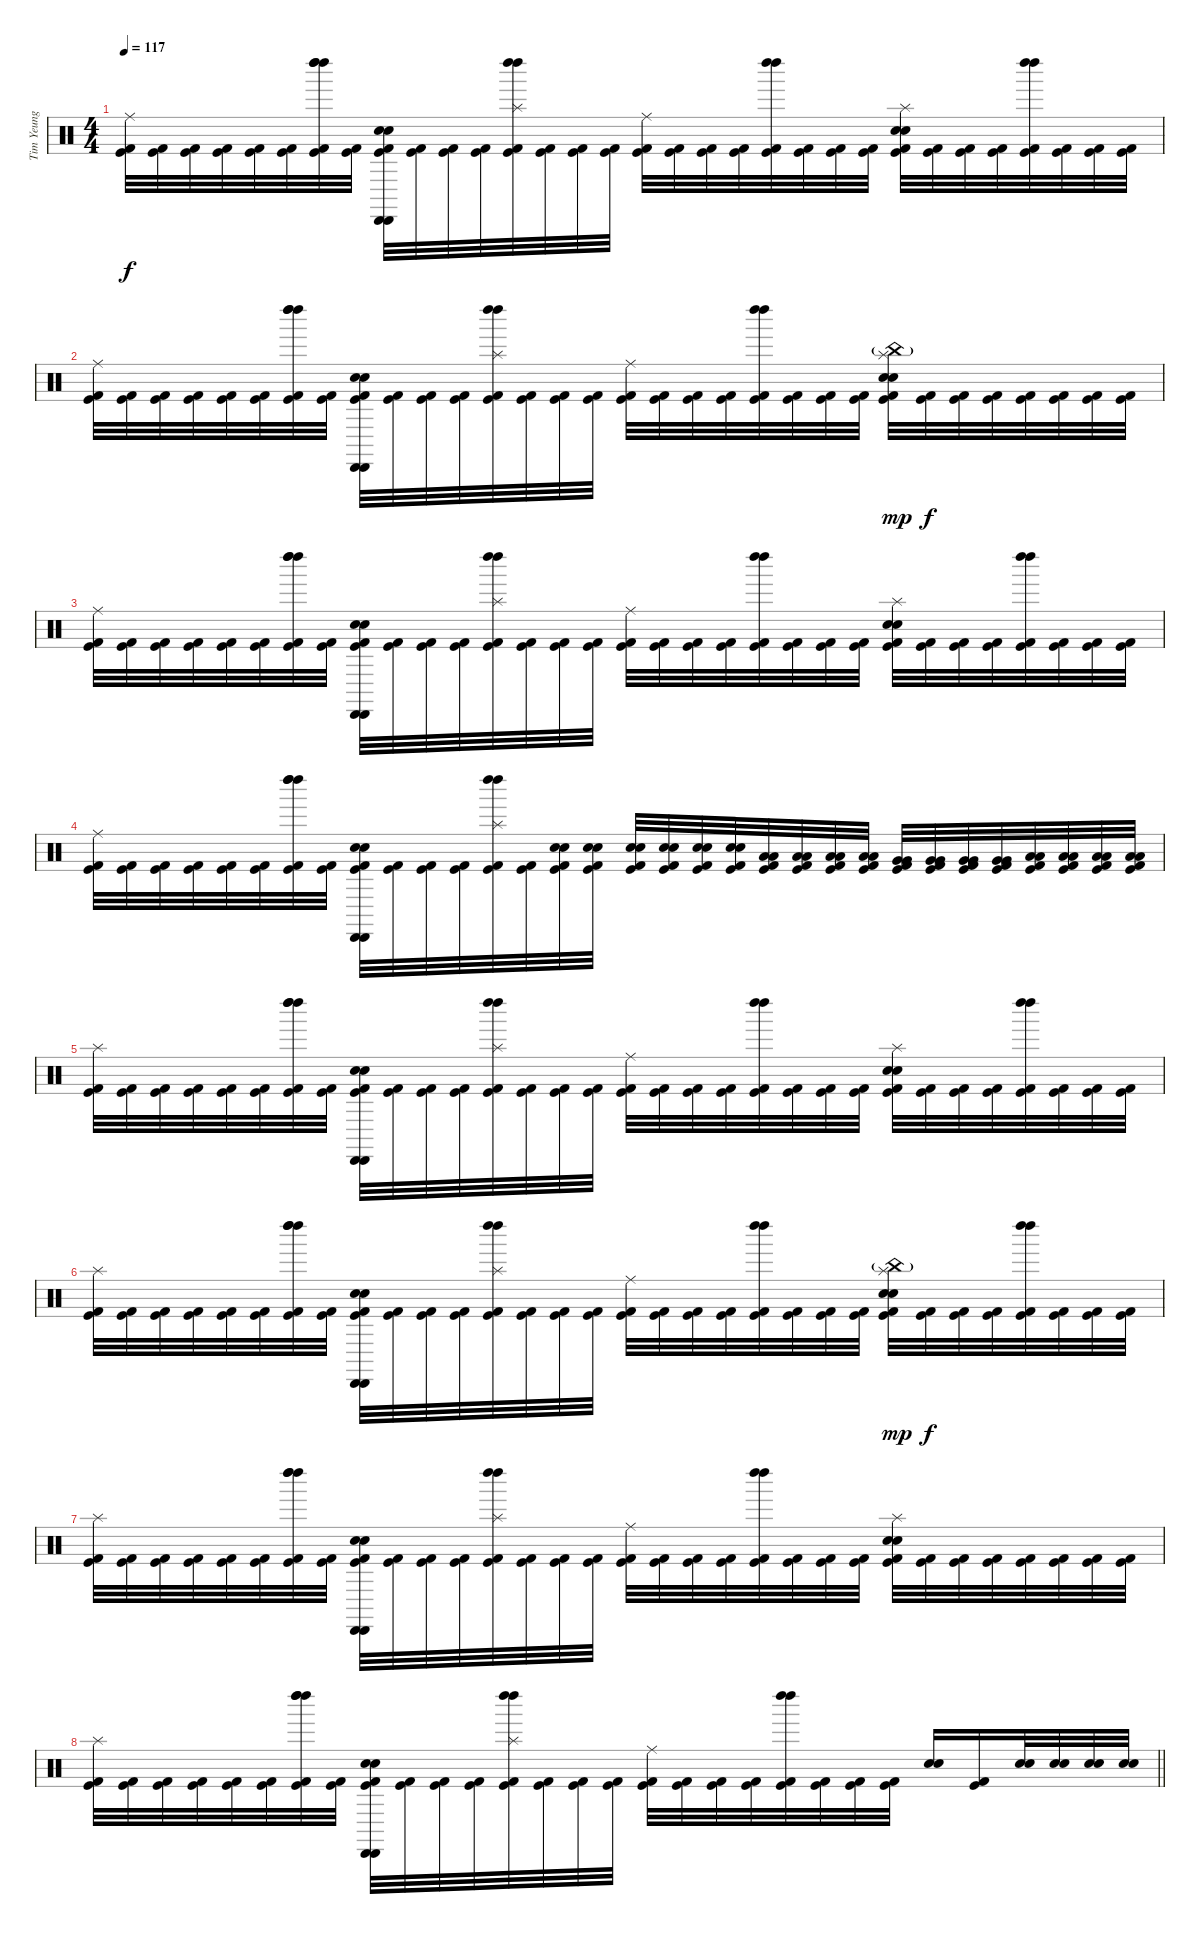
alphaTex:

\track ("Tim Yeung" "Tim Yeung") {instrument percussion}
\staff {score}
\articulation defaults
\ts (4 4)
\tempo 117
\clef neutral
\ks c
("Ride (middle)" "Kick (hit)" "Kick (hit) 2").32{dy f} ("Kick (hit)" "Kick (hit) 2").32 ("Kick (hit)" "Kick (hit) 2").32 ("Kick (hit)" "Kick (hit) 2").32 ("Kick (hit)" "Kick (hit) 2").32 ("Kick (hit)" "Kick (hit) 2").32 ("Left Maraca (hit)" "Left Maraca (hit)" "Left Maraca (hit)" "Kick (hit)" "Kick (hit) 2").32 ("Kick (hit)" "Kick (hit) 2").32 ("Cabasa (hit)" "Cabasa (hit)" "Electric Snare (hit)" "Snare (hit) 2" "Kick (hit)" "Kick (hit) 2").32 ("Kick (hit)" "Kick (hit) 2").32 ("Kick (hit)" "Kick (hit) 2").32 ("Kick (hit)" "Kick (hit) 2").32 ("Left Maraca (hit)" "Left Maraca (hit)" "Splash (hit)" "Kick (hit)" "Kick (hit) 2").32 ("Kick (hit)" "Kick (hit) 2").32 ("Kick (hit)" "Kick (hit) 2").32 ("Kick (hit)" "Kick (hit) 2").32 ("Ride (middle)" "Kick (hit)" "Kick (hit) 2").32 ("Kick (hit)" "Kick (hit) 2").32 ("Kick (hit)" "Kick (hit) 2").32 ("Kick (hit)" "Kick (hit) 2").32 ("Left Maraca (hit)" "Left Maraca (hit)" "Kick (hit)" "Kick (hit) 2").32 ("Kick (hit)" "Kick (hit) 2").32 ("Kick (hit)" "Kick (hit) 2").32 ("Kick (hit)" "Kick (hit) 2").32 ("Splash (hit)" "Electric Snare (hit)" "Snare (hit) 2" "Kick (hit)" "Kick (hit) 2").32 ("Kick (hit)" "Kick (hit) 2").32 ("Kick (hit)" "Kick (hit) 2").32 ("Kick (hit)" "Kick (hit) 2").32 ("Left Maraca (hit)" "Left Maraca (hit)" "Kick (hit)" "Kick (hit) 2").32 ("Kick (hit)" "Kick (hit) 2").32 ("Kick (hit)" "Kick (hit) 2").32 ("Kick (hit)" "Kick (hit) 2").32 |
("Ride (middle)" "Kick (hit)" "Kick (hit) 2").32 ("Kick (hit)" "Kick (hit) 2").32 ("Kick (hit)" "Kick (hit) 2").32 ("Kick (hit)" "Kick (hit) 2").32 ("Kick (hit)" "Kick (hit) 2").32 ("Kick (hit)" "Kick (hit) 2").32 ("Left Maraca (hit)" "Left Maraca (hit)" "Left Maraca (hit)" "Kick (hit)" "Kick (hit) 2").32 ("Kick (hit)" "Kick (hit) 2").32 ("Cabasa (hit)" "Cabasa (hit)" "Electric Snare (hit)" "Snare (hit) 2" "Kick (hit)" "Kick (hit) 2").32 ("Kick (hit)" "Kick (hit) 2").32 ("Kick (hit)" "Kick (hit) 2").32 ("Kick (hit)" "Kick (hit) 2").32 ("Left Maraca (hit)" "Left Maraca (hit)" "Splash (hit)" "Kick (hit)" "Kick (hit) 2").32 ("Kick (hit)" "Kick (hit) 2").32 ("Kick (hit)" "Kick (hit) 2").32 ("Kick (hit)" "Kick (hit) 2").32 ("Ride (middle)" "Kick (hit)" "Kick (hit) 2").32 ("Kick (hit)" "Kick (hit) 2").32 ("Kick (hit)" "Kick (hit) 2").32 ("Kick (hit)" "Kick (hit) 2").32 ("Left Maraca (hit)" "Left Maraca (hit)" "Kick (hit)" "Kick (hit) 2").32 ("Kick (hit)" "Kick (hit) 2").32 ("Kick (hit)" "Kick (hit) 2").32 ("Kick (hit)" "Kick (hit) 2").32 ("China (hit)"{g} "Splash (hit)" "Electric Snare (hit)" "Snare (hit) 2" "Kick (hit)" "Kick (hit) 2").32{dy mp} ("Kick (hit)" "Kick (hit) 2").32{dy f} ("Kick (hit)" "Kick (hit) 2").32 ("Kick (hit)" "Kick (hit) 2").32 ("Kick (hit)" "Kick (hit) 2").32 ("Kick (hit)" "Kick (hit) 2").32 ("Kick (hit)" "Kick (hit) 2").32 ("Kick (hit)" "Kick (hit) 2").32 |
("Ride (middle)" "Kick (hit)" "Kick (hit) 2").32 ("Kick (hit)" "Kick (hit) 2").32 ("Kick (hit)" "Kick (hit) 2").32 ("Kick (hit)" "Kick (hit) 2").32 ("Kick (hit)" "Kick (hit) 2").32 ("Kick (hit)" "Kick (hit) 2").32 ("Left Maraca (hit)" "Left Maraca (hit)" "Left Maraca (hit)" "Kick (hit)" "Kick (hit) 2").32 ("Kick (hit)" "Kick (hit) 2").32 ("Cabasa (hit)" "Cabasa (hit)" "Electric Snare (hit)" "Snare (hit) 2" "Kick (hit)" "Kick (hit) 2").32 ("Kick (hit)" "Kick (hit) 2").32 ("Kick (hit)" "Kick (hit) 2").32 ("Kick (hit)" "Kick (hit) 2").32 ("Left Maraca (hit)" "Left Maraca (hit)" "Splash (hit)" "Kick (hit)" "Kick (hit) 2").32 ("Kick (hit)" "Kick (hit) 2").32 ("Kick (hit)" "Kick (hit) 2").32 ("Kick (hit)" "Kick (hit) 2").32 ("Ride (middle)" "Kick (hit)" "Kick (hit) 2").32 ("Kick (hit)" "Kick (hit) 2").32 ("Kick (hit)" "Kick (hit) 2").32 ("Kick (hit)" "Kick (hit) 2").32 ("Left Maraca (hit)" "Left Maraca (hit)" "Kick (hit)" "Kick (hit) 2").32 ("Kick (hit)" "Kick (hit) 2").32 ("Kick (hit)" "Kick (hit) 2").32 ("Kick (hit)" "Kick (hit) 2").32 ("Splash (hit)" "Electric Snare (hit)" "Snare (hit) 2" "Kick (hit)" "Kick (hit) 2").32 ("Kick (hit)" "Kick (hit) 2").32 ("Kick (hit)" "Kick (hit) 2").32 ("Kick (hit)" "Kick (hit) 2").32 ("Left Maraca (hit)" "Left Maraca (hit)" "Kick (hit)" "Kick (hit) 2").32 ("Kick (hit)" "Kick (hit) 2").32 ("Kick (hit)" "Kick (hit) 2").32 ("Kick (hit)" "Kick (hit) 2").32 |
("Ride (middle)" "Kick (hit)" "Kick (hit) 2").32 ("Kick (hit)" "Kick (hit) 2").32 ("Kick (hit)" "Kick (hit) 2").32 ("Kick (hit)" "Kick (hit) 2").32 ("Kick (hit)" "Kick (hit) 2").32 ("Kick (hit)" "Kick (hit) 2").32 ("Left Maraca (hit)" "Left Maraca (hit)" "Left Maraca (hit)" "Kick (hit)" "Kick (hit) 2").32 ("Kick (hit)" "Kick (hit) 2").32 ("Cabasa (hit)" "Cabasa (hit)" "Electric Snare (hit)" "Snare (hit) 2" "Kick (hit)" "Kick (hit) 2").32 ("Kick (hit)" "Kick (hit) 2").32 ("Kick (hit)" "Kick (hit) 2").32 ("Kick (hit)" "Kick (hit) 2").32 ("Left Maraca (hit)" "Left Maraca (hit)" "Splash (hit)" "Kick (hit)" "Kick (hit) 2").32 ("Kick (hit)" "Kick (hit) 2").32 ("Electric Snare (hit)" "Snare (hit) 2" "Kick (hit)" "Kick (hit) 2").32 ("Electric Snare (hit)" "Snare (hit) 2" "Kick (hit)" "Kick (hit) 2").32 ("Electric Snare (hit)" "Snare (hit) 2" "Kick (hit)" "Kick (hit) 2").32 ("Electric Snare (hit)" "Snare (hit) 2" "Kick (hit)" "Kick (hit) 2").32 ("Electric Snare (hit)" "Snare (hit) 2" "Kick (hit)" "Kick (hit) 2").32 ("Electric Snare (hit)" "Snare (hit) 2" "Kick (hit)" "Kick (hit) 2").32 ("Low Tom (hit)" "Low Tom (hit)" "Kick (hit)" "Kick (hit) 2").32 ("Low Tom (hit)" "Low Tom (hit)" "Kick (hit)" "Kick (hit) 2").32 ("Low Tom (hit)" "Low Tom (hit)" "Kick (hit)" "Kick (hit) 2").32 ("Low Tom (hit)" "Low Tom (hit)" "Kick (hit)" "Kick (hit) 2").32 ("Very Low Tom (hit)" "Very Low Tom (hit)" "Kick (hit)" "Kick (hit) 2").32 ("Very Low Tom (hit)" "Very Low Tom (hit)" "Kick (hit)" "Kick (hit) 2").32 ("Very Low Tom (hit)" "Very Low Tom (hit)" "Kick (hit)" "Kick (hit) 2").32 ("Very Low Tom (hit)" "Very Low Tom (hit)" "Kick (hit)" "Kick (hit) 2").32 ("Low Floor Tom (hit)" "Low Floor Tom (hit)" "Kick (hit)" "Kick (hit) 2").32 ("Low Floor Tom (hit)" "Low Floor Tom (hit)" "Kick (hit)" "Kick (hit) 2").32 ("Low Floor Tom (hit)" "Low Floor Tom (hit)" "Kick (hit)" "Kick (hit) 2").32 ("Low Floor Tom (hit)" "Low Floor Tom (hit)" "Kick (hit)" "Kick (hit) 2").32 |
("Splash (hit)" "Kick (hit)" "Kick (hit) 2").32 ("Kick (hit)" "Kick (hit) 2").32 ("Kick (hit)" "Kick (hit) 2").32 ("Kick (hit)" "Kick (hit) 2").32 ("Kick (hit)" "Kick (hit) 2").32 ("Kick (hit)" "Kick (hit) 2").32 ("Left Maraca (hit)" "Left Maraca (hit)" "Left Maraca (hit)" "Kick (hit)" "Kick (hit) 2").32 ("Kick (hit)" "Kick (hit) 2").32 ("Cabasa (hit)" "Cabasa (hit)" "Electric Snare (hit)" "Snare (hit) 2" "Kick (hit)" "Kick (hit) 2").32 ("Kick (hit)" "Kick (hit) 2").32 ("Kick (hit)" "Kick (hit) 2").32 ("Kick (hit)" "Kick (hit) 2").32 ("Left Maraca (hit)" "Left Maraca (hit)" "Splash (hit)" "Kick (hit)" "Kick (hit) 2").32 ("Kick (hit)" "Kick (hit) 2").32 ("Kick (hit)" "Kick (hit) 2").32 ("Kick (hit)" "Kick (hit) 2").32 ("Ride (middle)" "Kick (hit)" "Kick (hit) 2").32 ("Kick (hit)" "Kick (hit) 2").32 ("Kick (hit)" "Kick (hit) 2").32 ("Kick (hit)" "Kick (hit) 2").32 ("Left Maraca (hit)" "Left Maraca (hit)" "Kick (hit)" "Kick (hit) 2").32 ("Kick (hit)" "Kick (hit) 2").32 ("Kick (hit)" "Kick (hit) 2").32 ("Kick (hit)" "Kick (hit) 2").32 ("Splash (hit)" "Electric Snare (hit)" "Snare (hit) 2" "Kick (hit)" "Kick (hit) 2").32 ("Kick (hit)" "Kick (hit) 2").32 ("Kick (hit)" "Kick (hit) 2").32 ("Kick (hit)" "Kick (hit) 2").32 ("Left Maraca (hit)" "Left Maraca (hit)" "Kick (hit)" "Kick (hit) 2").32 ("Kick (hit)" "Kick (hit) 2").32 ("Kick (hit)" "Kick (hit) 2").32 ("Kick (hit)" "Kick (hit) 2").32 |
("Splash (hit)" "Kick (hit)" "Kick (hit) 2").32 ("Kick (hit)" "Kick (hit) 2").32 ("Kick (hit)" "Kick (hit) 2").32 ("Kick (hit)" "Kick (hit) 2").32 ("Kick (hit)" "Kick (hit) 2").32 ("Kick (hit)" "Kick (hit) 2").32 ("Left Maraca (hit)" "Left Maraca (hit)" "Left Maraca (hit)" "Kick (hit)" "Kick (hit) 2").32 ("Kick (hit)" "Kick (hit) 2").32 ("Cabasa (hit)" "Cabasa (hit)" "Electric Snare (hit)" "Snare (hit) 2" "Kick (hit)" "Kick (hit) 2").32 ("Kick (hit)" "Kick (hit) 2").32 ("Kick (hit)" "Kick (hit) 2").32 ("Kick (hit)" "Kick (hit) 2").32 ("Left Maraca (hit)" "Left Maraca (hit)" "Splash (hit)" "Kick (hit)" "Kick (hit) 2").32 ("Kick (hit)" "Kick (hit) 2").32 ("Kick (hit)" "Kick (hit) 2").32 ("Kick (hit)" "Kick (hit) 2").32 ("Ride (middle)" "Kick (hit)" "Kick (hit) 2").32 ("Kick (hit)" "Kick (hit) 2").32 ("Kick (hit)" "Kick (hit) 2").32 ("Kick (hit)" "Kick (hit) 2").32 ("Left Maraca (hit)" "Left Maraca (hit)" "Kick (hit)" "Kick (hit) 2").32 ("Kick (hit)" "Kick (hit) 2").32 ("Kick (hit)" "Kick (hit) 2").32 ("Kick (hit)" "Kick (hit) 2").32 ("China (hit)"{g} "Splash (hit)" "Electric Snare (hit)" "Snare (hit) 2" "Kick (hit)" "Kick (hit) 2").32{dy mp} ("Kick (hit)" "Kick (hit) 2").32{dy f} ("Kick (hit)" "Kick (hit) 2").32 ("Kick (hit)" "Kick (hit) 2").32 ("Left Maraca (hit)" "Left Maraca (hit)" "Kick (hit)" "Kick (hit) 2").32 ("Kick (hit)" "Kick (hit) 2").32 ("Kick (hit)" "Kick (hit) 2").32 ("Kick (hit)" "Kick (hit) 2").32 |
("Splash (hit)" "Kick (hit)" "Kick (hit) 2").32 ("Kick (hit)" "Kick (hit) 2").32 ("Kick (hit)" "Kick (hit) 2").32 ("Kick (hit)" "Kick (hit) 2").32 ("Kick (hit)" "Kick (hit) 2").32 ("Kick (hit)" "Kick (hit) 2").32 ("Left Maraca (hit)" "Left Maraca (hit)" "Left Maraca (hit)" "Kick (hit)" "Kick (hit) 2").32 ("Kick (hit)" "Kick (hit) 2").32 ("Cabasa (hit)" "Cabasa (hit)" "Electric Snare (hit)" "Snare (hit) 2" "Kick (hit)" "Kick (hit) 2").32 ("Kick (hit)" "Kick (hit) 2").32 ("Kick (hit)" "Kick (hit) 2").32 ("Kick (hit)" "Kick (hit) 2").32 ("Left Maraca (hit)" "Left Maraca (hit)" "Splash (hit)" "Kick (hit)" "Kick (hit) 2").32 ("Kick (hit)" "Kick (hit) 2").32 ("Kick (hit)" "Kick (hit) 2").32 ("Kick (hit)" "Kick (hit) 2").32 ("Ride (middle)" "Kick (hit)" "Kick (hit) 2").32 ("Kick (hit)" "Kick (hit) 2").32 ("Kick (hit)" "Kick (hit) 2").32 ("Kick (hit)" "Kick (hit) 2").32 ("Left Maraca (hit)" "Left Maraca (hit)" "Kick (hit)" "Kick (hit) 2").32 ("Kick (hit)" "Kick (hit) 2").32 ("Kick (hit)" "Kick (hit) 2").32 ("Kick (hit)" "Kick (hit) 2").32 ("Splash (hit)" "Electric Snare (hit)" "Snare (hit) 2" "Kick (hit)" "Kick (hit) 2").32 ("Kick (hit)" "Kick (hit) 2").32 ("Kick (hit)" "Kick (hit) 2").32 ("Kick (hit)" "Kick (hit) 2").32 ("Kick (hit)" "Kick (hit) 2").32 ("Kick (hit)" "Kick (hit) 2").32 ("Kick (hit)" "Kick (hit) 2").32 ("Kick (hit)" "Kick (hit) 2").32 |
\barLineRight lightlight
("Splash (hit)" "Kick (hit)" "Kick (hit) 2").32 ("Kick (hit)" "Kick (hit) 2").32 ("Kick (hit)" "Kick (hit) 2").32 ("Kick (hit)" "Kick (hit) 2").32 ("Kick (hit)" "Kick (hit) 2").32 ("Kick (hit)" "Kick (hit) 2").32 ("Left Maraca (hit)" "Left Maraca (hit)" "Left Maraca (hit)" "Kick (hit)" "Kick (hit) 2").32 ("Kick (hit)" "Kick (hit) 2").32 ("Cabasa (hit)" "Cabasa (hit)" "Electric Snare (hit)" "Snare (hit) 2" "Kick (hit)" "Kick (hit) 2").32 ("Kick (hit)" "Kick (hit) 2").32 ("Kick (hit)" "Kick (hit) 2").32 ("Kick (hit)" "Kick (hit) 2").32 ("Left Maraca (hit)" "Left Maraca (hit)" "Splash (hit)" "Kick (hit)" "Kick (hit) 2").32 ("Kick (hit)" "Kick (hit) 2").32 ("Kick (hit)" "Kick (hit) 2").32 ("Kick (hit)" "Kick (hit) 2").32 ("Ride (middle)" "Kick (hit)" "Kick (hit) 2").32 ("Kick (hit)" "Kick (hit) 2").32 ("Kick (hit)" "Kick (hit) 2").32 ("Kick (hit)" "Kick (hit) 2").32 ("Left Maraca (hit)" "Left Maraca (hit)" "Kick (hit)" "Kick (hit) 2").32 ("Kick (hit)" "Kick (hit) 2").32 ("Kick (hit)" "Kick (hit) 2").32 ("Kick (hit)" "Kick (hit) 2").32 ("Electric Snare (hit)" "Snare (hit) 2").16 ("Kick (hit)" "Kick (hit) 2").16 ("Electric Snare (hit)" "Snare (hit) 2").32 ("Electric Snare (hit)" "Snare (hit) 2").32 ("Electric Snare (hit)" "Snare (hit) 2").32 ("Electric Snare (hit)" "Snare (hit) 2").32
